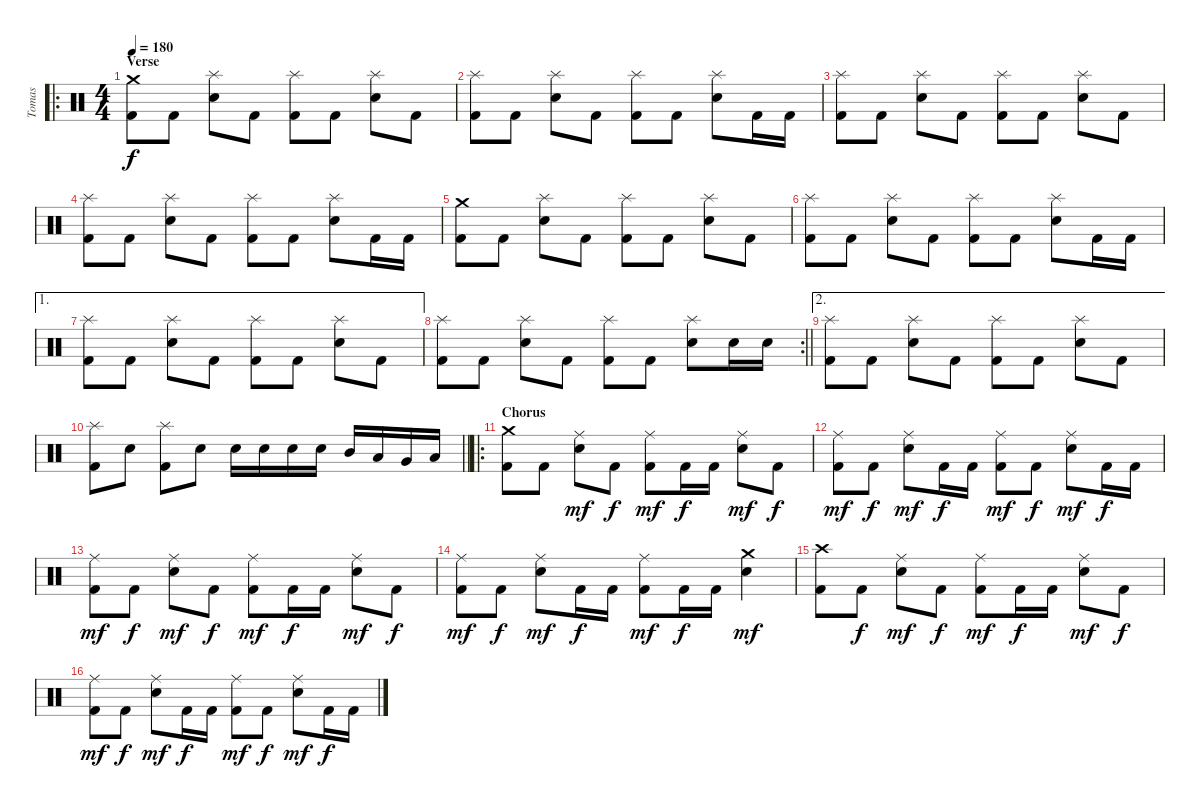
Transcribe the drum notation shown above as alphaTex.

\track ("Tomas" "Tomas") {instrument percussion}
\staff {score}
\articulation defaults
\ro
\ts (4 4)
\section ("" "Verse")
\tempo 180
\clef neutral
\ks c
("Kick (hit) 2" "Crash medium (hit)").8{dy f} "Kick (hit) 2".8 ("Electric Snare (hit)" "Splash (hit)").8 "Kick (hit) 2".8 ("Kick (hit) 2" "Splash (hit)").8 "Kick (hit) 2".8 ("Electric Snare (hit)" "Splash (hit)").8 "Kick (hit) 2".8 |
("Kick (hit) 2" "Splash (hit)").8 "Kick (hit) 2".8 ("Electric Snare (hit)" "Splash (hit)").8 "Kick (hit) 2".8 ("Kick (hit) 2" "Splash (hit)").8 "Kick (hit) 2".8 ("Electric Snare (hit)" "Splash (hit)").8 "Kick (hit) 2".16 "Kick (hit) 2".16 |
("Kick (hit) 2" "Splash (hit)").8 "Kick (hit) 2".8 ("Electric Snare (hit)" "Splash (hit)").8 "Kick (hit) 2".8 ("Kick (hit) 2" "Splash (hit)").8 "Kick (hit) 2".8 ("Electric Snare (hit)" "Splash (hit)").8 "Kick (hit) 2".8 |
("Kick (hit) 2" "Splash (hit)").8 "Kick (hit) 2".8 ("Electric Snare (hit)" "Splash (hit)").8 "Kick (hit) 2".8 ("Kick (hit) 2" "Splash (hit)").8 "Kick (hit) 2".8 ("Electric Snare (hit)" "Splash (hit)").8 "Kick (hit) 2".16 "Kick (hit) 2".16 |
("Kick (hit) 2" "Crash medium (hit)").8 "Kick (hit) 2".8 ("Electric Snare (hit)" "Splash (hit)").8 "Kick (hit) 2".8 ("Kick (hit) 2" "Splash (hit)").8 "Kick (hit) 2".8 ("Electric Snare (hit)" "Splash (hit)").8 "Kick (hit) 2".8 |
("Kick (hit) 2" "Splash (hit)").8 "Kick (hit) 2".8 ("Electric Snare (hit)" "Splash (hit)").8 "Kick (hit) 2".8 ("Kick (hit) 2" "Splash (hit)").8 "Kick (hit) 2".8 ("Electric Snare (hit)" "Splash (hit)").8 "Kick (hit) 2".16 "Kick (hit) 2".16 |
\ae 1
("Kick (hit) 2" "Splash (hit)").8 "Kick (hit) 2".8 ("Electric Snare (hit)" "Splash (hit)").8 "Kick (hit) 2".8 ("Kick (hit) 2" "Splash (hit)").8 "Kick (hit) 2".8 ("Electric Snare (hit)" "Splash (hit)").8 "Kick (hit) 2".8 |
\rc 2
\barLineRight lightlight
("Kick (hit) 2" "Splash (hit)").8 "Kick (hit) 2".8 ("Electric Snare (hit)" "Splash (hit)").8 "Kick (hit) 2".8 ("Kick (hit) 2" "Splash (hit)").8 "Kick (hit) 2".8 ("Electric Snare (hit)" "Splash (hit)").8 "Electric Snare (hit)".16 "Electric Snare (hit)".16 |
\ae 2
("Kick (hit) 2" "Splash (hit)").8 "Kick (hit) 2".8 ("Electric Snare (hit)" "Splash (hit)").8 "Kick (hit) 2".8 ("Kick (hit) 2" "Splash (hit)").8 "Kick (hit) 2".8 ("Electric Snare (hit)" "Splash (hit)").8 "Kick (hit) 2".8 |
\barLineRight lightlight
("Kick (hit) 2" "Splash (hit)").8 "Electric Snare (hit)".8 ("Kick (hit) 2" "Splash (hit)").8 "Electric Snare (hit)".8 "Electric Snare (hit)".16 "Electric Snare (hit)".16 "Electric Snare (hit)".16 "Electric Snare (hit)".16 "Mid Tom (hit)".16 "Low Tom (hit)".16 "Very Low Tom (hit)".16 "Low Floor Tom (hit)".16 |
\ro
\section ("" "Chorus")
("Kick (hit) 2" "Crash medium (hit)").8 "Kick (hit) 2".8 ("Electric Snare (hit)" "Ride (middle)").8{dy mf} "Kick (hit) 2".8{dy f} ("Kick (hit) 2" "Ride (middle)").8{dy mf} "Kick (hit) 2".16{dy f} "Kick (hit) 2".16 ("Electric Snare (hit)" "Ride (middle)").8{dy mf} "Kick (hit) 2".8{dy f} |
("Kick (hit) 2" "Ride (middle)").8{dy mf} "Kick (hit) 2".8{dy f} ("Electric Snare (hit)" "Ride (middle)").8{dy mf} "Kick (hit) 2".16{dy f} "Kick (hit) 2".16 ("Kick (hit) 2" "Ride (middle)").8{dy mf} "Kick (hit) 2".8{dy f} ("Electric Snare (hit)" "Ride (middle)").8{dy mf} "Kick (hit) 2".16{dy f} "Kick (hit) 2".16 |
("Kick (hit) 2" "Ride (middle)").8{dy mf} "Kick (hit) 2".8{dy f} ("Electric Snare (hit)" "Ride (middle)").8{dy mf} "Kick (hit) 2".8{dy f} ("Kick (hit) 2" "Ride (middle)").8{dy mf} "Kick (hit) 2".16{dy f} "Kick (hit) 2".16 ("Electric Snare (hit)" "Ride (middle)").8{dy mf} "Kick (hit) 2".8{dy f} |
("Kick (hit) 2" "Ride (middle)").8{dy mf} "Kick (hit) 2".8{dy f} ("Electric Snare (hit)" "Ride (middle)").8{dy mf} "Kick (hit) 2".16{dy f} "Kick (hit) 2".16 ("Kick (hit) 2" "Ride (middle)").8{dy mf} "Kick (hit) 2".16{dy f} "Kick (hit) 2".16 ("Electric Snare (hit)" "Crash medium (hit)").4{dy mf} |
("Kick (hit) 2" "Crash high (hit)").8 "Kick (hit) 2".8{dy f} ("Electric Snare (hit)" "Ride (middle)").8{dy mf} "Kick (hit) 2".8{dy f} ("Kick (hit) 2" "Ride (middle)").8{dy mf} "Kick (hit) 2".16{dy f} "Kick (hit) 2".16 ("Electric Snare (hit)" "Ride (middle)").8{dy mf} "Kick (hit) 2".8{dy f} |
("Kick (hit) 2" "Ride (middle)").8{dy mf} "Kick (hit) 2".8{dy f} ("Electric Snare (hit)" "Ride (middle)").8{dy mf} "Kick (hit) 2".16{dy f} "Kick (hit) 2".16 ("Kick (hit) 2" "Ride (middle)").8{dy mf} "Kick (hit) 2".8{dy f} ("Electric Snare (hit)" "Ride (middle)").8{dy mf} "Kick (hit) 2".16{dy f} "Kick (hit) 2".16
